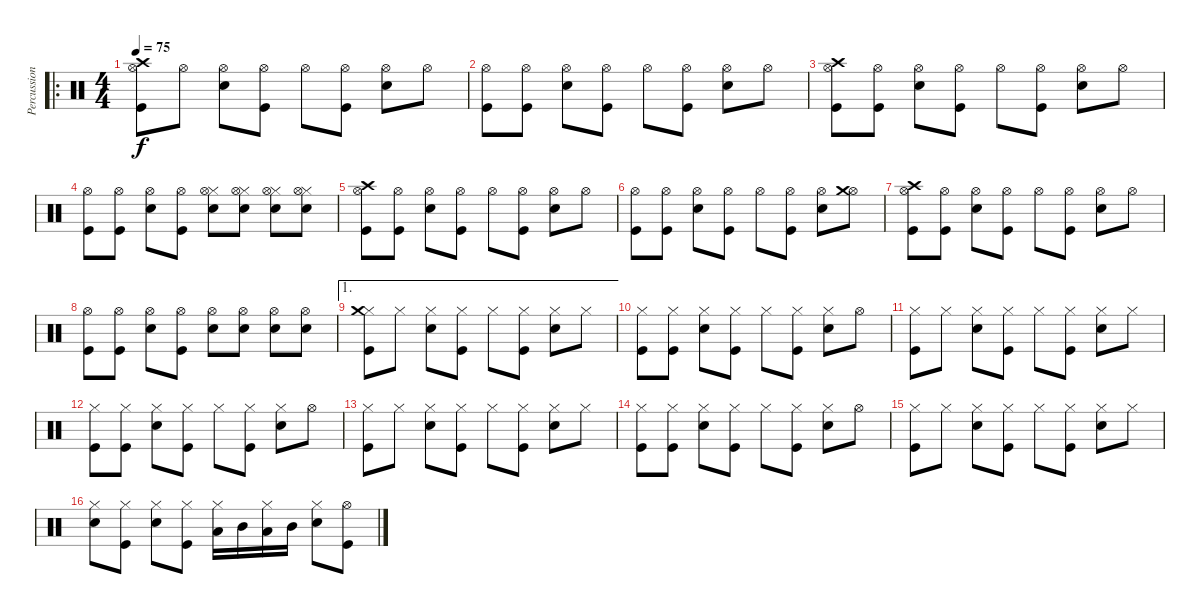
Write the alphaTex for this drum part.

\track ("Percussion" "Percussion") {instrument percussion}
\staff {score}
\articulation defaults
\ro
\ts (4 4)
\tempo 75
\clef neutral
\ks c
("Hi-Hat (open)" "Kick (hit)" "Crash high (hit)").8{dy f} "Hi-Hat (open)".8 ("Hi-Hat (open)" "Electric Snare (hit)").8 ("Hi-Hat (open)" "Kick (hit)").8 "Hi-Hat (open)".8 ("Hi-Hat (open)" "Kick (hit)").8 ("Hi-Hat (open)" "Electric Snare (hit)").8 "Hi-Hat (open)".8 |
("Hi-Hat (open)" "Kick (hit)").8 ("Hi-Hat (open)" "Kick (hit)").8 ("Hi-Hat (open)" "Electric Snare (hit)").8 ("Hi-Hat (open)" "Kick (hit)").8 "Hi-Hat (open)".8 ("Hi-Hat (open)" "Kick (hit)").8 ("Hi-Hat (open)" "Electric Snare (hit)").8 "Hi-Hat (open)".8 |
("Hi-Hat (open)" "Kick (hit)" "Crash high (hit)").8 ("Hi-Hat (open)" "Kick (hit)").8 ("Hi-Hat (open)" "Electric Snare (hit)").8 ("Hi-Hat (open)" "Kick (hit)").8 "Hi-Hat (open)".8 ("Hi-Hat (open)" "Kick (hit)").8 ("Hi-Hat (open)" "Electric Snare (hit)").8 "Hi-Hat (open)".8 |
("Hi-Hat (open)" "Kick (hit)").8 ("Hi-Hat (open)" "Kick (hit)").8 ("Hi-Hat (open)" "Electric Snare (hit)").8 ("Hi-Hat (open)" "Kick (hit)").8 ("Hi-Hat (closed)" "Electric Snare (hit)" "Hi-Hat (open)").8 ("Hi-Hat (closed)" "Electric Snare (hit)" "Hi-Hat (open)").8 ("Hi-Hat (closed)" "Electric Snare (hit)" "Hi-Hat (open)").8 ("Hi-Hat (closed)" "Electric Snare (hit)" "Hi-Hat (open)").8 |
("Hi-Hat (open)" "Kick (hit)" "Crash high (hit)").8 ("Hi-Hat (open)" "Kick (hit)").8 ("Hi-Hat (open)" "Electric Snare (hit)").8 ("Hi-Hat (open)" "Kick (hit)").8 "Hi-Hat (open)".8 ("Hi-Hat (open)" "Kick (hit)").8 ("Hi-Hat (open)" "Electric Snare (hit)").8 "Hi-Hat (open)".8 |
("Hi-Hat (open)" "Kick (hit)").8 ("Hi-Hat (open)" "Kick (hit)").8 ("Hi-Hat (open)" "Electric Snare (hit)").8 ("Hi-Hat (open)" "Kick (hit)").8 "Hi-Hat (open)".8 ("Hi-Hat (open)" "Kick (hit)").8 ("Hi-Hat (open)" "Electric Snare (hit)").8 ("Hi-Hat (open)" "Crash medium (hit)").8 |
("Hi-Hat (open)" "Kick (hit)" "Crash high (hit)").8 ("Hi-Hat (open)" "Kick (hit)").8 ("Hi-Hat (open)" "Electric Snare (hit)").8 ("Hi-Hat (open)" "Kick (hit)").8 "Hi-Hat (open)".8 ("Hi-Hat (open)" "Kick (hit)").8 ("Hi-Hat (open)" "Electric Snare (hit)").8 "Hi-Hat (open)".8 |
("Hi-Hat (open)" "Kick (hit)").8 ("Hi-Hat (open)" "Kick (hit)").8 ("Hi-Hat (open)" "Electric Snare (hit)").8 ("Hi-Hat (open)" "Kick (hit)").8 ("Hi-Hat (open)" "Electric Snare (hit)").8 ("Hi-Hat (open)" "Electric Snare (hit)").8 ("Hi-Hat (open)" "Electric Snare (hit)").8 ("Hi-Hat (open)" "Electric Snare (hit)").8 |
\ae 1
("Hi-Hat (closed)" "Kick (hit)" "Crash medium (hit)").8 "Hi-Hat (closed)".8 ("Hi-Hat (closed)" "Electric Snare (hit)").8 ("Hi-Hat (closed)" "Kick (hit)").8 "Hi-Hat (closed)".8 ("Hi-Hat (closed)" "Kick (hit)").8 ("Hi-Hat (closed)" "Electric Snare (hit)").8 "Hi-Hat (closed)".8 |
("Hi-Hat (closed)" "Kick (hit)").8 ("Hi-Hat (closed)" "Kick (hit)").8 ("Hi-Hat (closed)" "Electric Snare (hit)").8 ("Hi-Hat (closed)" "Kick (hit)").8 "Hi-Hat (closed)".8 ("Hi-Hat (closed)" "Kick (hit)").8 ("Hi-Hat (closed)" "Electric Snare (hit)").8 "Hi-Hat (open)".8 |
("Hi-Hat (closed)" "Kick (hit)").8 "Hi-Hat (closed)".8 ("Hi-Hat (closed)" "Electric Snare (hit)").8 ("Hi-Hat (closed)" "Kick (hit)").8 "Hi-Hat (closed)".8 ("Hi-Hat (closed)" "Kick (hit)").8 ("Hi-Hat (closed)" "Electric Snare (hit)").8 "Hi-Hat (closed)".8 |
("Hi-Hat (closed)" "Kick (hit)").8 ("Hi-Hat (closed)" "Kick (hit)").8 ("Hi-Hat (closed)" "Electric Snare (hit)").8 ("Hi-Hat (closed)" "Kick (hit)").8 "Hi-Hat (closed)".8 ("Hi-Hat (closed)" "Kick (hit)").8 ("Hi-Hat (closed)" "Electric Snare (hit)").8 "Hi-Hat (open)".8 |
("Hi-Hat (closed)" "Kick (hit)").8 "Hi-Hat (closed)".8 ("Hi-Hat (closed)" "Electric Snare (hit)").8 ("Hi-Hat (closed)" "Kick (hit)").8 "Hi-Hat (closed)".8 ("Hi-Hat (closed)" "Kick (hit)").8 ("Hi-Hat (closed)" "Electric Snare (hit)").8 "Hi-Hat (closed)".8 |
("Hi-Hat (closed)" "Kick (hit)").8 ("Hi-Hat (closed)" "Kick (hit)").8 ("Hi-Hat (closed)" "Electric Snare (hit)").8 ("Hi-Hat (closed)" "Kick (hit)").8 "Hi-Hat (closed)".8 ("Hi-Hat (closed)" "Kick (hit)").8 ("Hi-Hat (closed)" "Electric Snare (hit)").8 "Hi-Hat (open)".8 |
("Hi-Hat (closed)" "Kick (hit)").8 "Hi-Hat (closed)".8 ("Hi-Hat (closed)" "Electric Snare (hit)").8 ("Hi-Hat (closed)" "Kick (hit)").8 "Hi-Hat (closed)".8 ("Hi-Hat (closed)" "Kick (hit)").8 ("Hi-Hat (closed)" "Electric Snare (hit)").8 "Hi-Hat (closed)".8 |
("Hi-Hat (closed)" "Electric Snare (hit)").8 ("Hi-Hat (closed)" "Kick (hit)").8 ("Hi-Hat (closed)" "Electric Snare (hit)").8 ("Hi-Hat (closed)" "Kick (hit)").8 ("Hi-Hat (closed)" "Low Tom (hit)").16 "Mid Tom (hit)".16 ("Hi-Hat (closed)" "Low Tom (hit)").16 "Mid Tom (hit)".16 ("Hi-Hat (closed)" "Electric Snare (hit)").8 ("Hi-Hat (open)" "Kick (hit)").8
